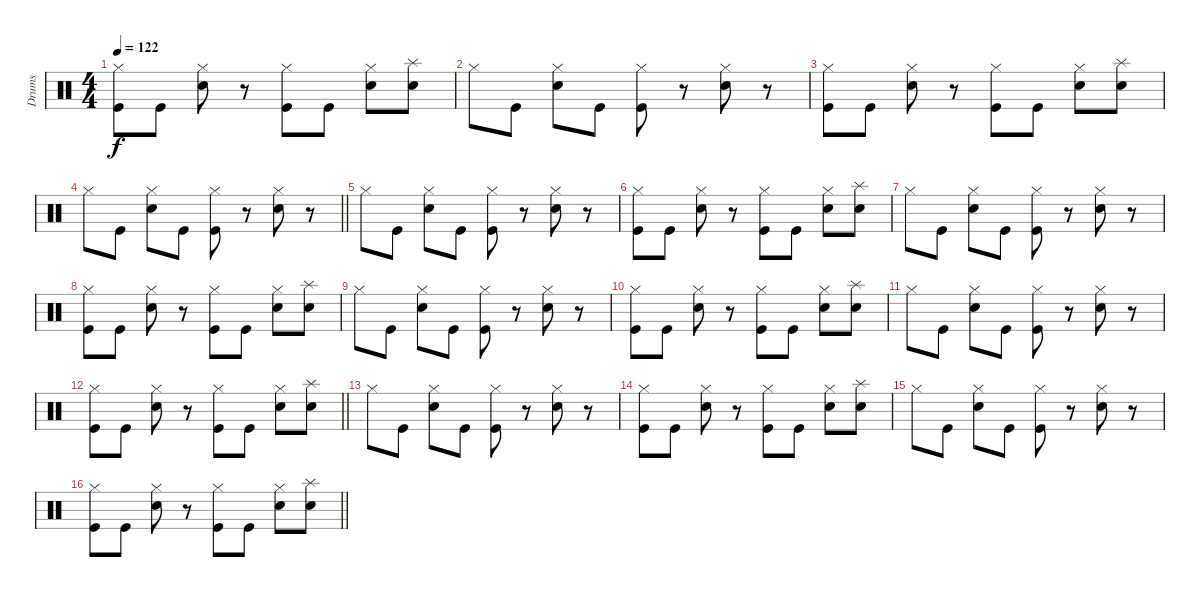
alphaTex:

\track ("Drums" "Drums") {instrument percussion}
\staff {score}
\articulation defaults
\ts (4 4)
\tempo 122
\clef neutral
\ks c
("Hi-Hat (closed)" "Kick (hit)").8{dy f} "Kick (hit)".8 ("Hi-Hat (closed)" "Snare (hit) 2").8 r.8 ("Hi-Hat (closed)" "Kick (hit)").8 "Kick (hit)".8 ("Hi-Hat (closed)" "Hand Clap (hit)").8 ("Splash (hit)" "Electric Snare (hit)").8 |
"Hi-Hat (closed)".8 "Kick (hit)".8 ("Hi-Hat (closed)" "Snare (hit) 2").8 "Kick (hit)".8 ("Hi-Hat (closed)" "Kick (hit)").8 r.8 ("Hi-Hat (closed)" "Snare (hit) 2").8 r.8 |
("Hi-Hat (closed)" "Kick (hit)").8 "Kick (hit)".8 ("Hi-Hat (closed)" "Snare (hit) 2").8 r.8 ("Hi-Hat (closed)" "Kick (hit)").8 "Kick (hit)".8 ("Hi-Hat (closed)" "Hand Clap (hit)").8 ("Splash (hit)" "Electric Snare (hit)").8 |
\barLineRight lightlight "Hi-Hat (closed)".8 "Kick (hit)".8
("Hi-Hat (closed)" "Snare (hit) 2").8 "Kick (hit)".8 ("Hi-Hat (closed)" "Kick (hit)").8 r.8 ("Hi-Hat (closed)" "Snare (hit) 2").8 r.8 |
"Hi-Hat (closed)".8 "Kick (hit)".8 ("Hi-Hat (closed)" "Snare (hit) 2").8 "Kick (hit)".8 ("Hi-Hat (closed)" "Kick (hit)").8 r.8 ("Hi-Hat (closed)" "Snare (hit) 2").8 r.8 |
("Hi-Hat (closed)" "Kick (hit)").8 "Kick (hit)".8 ("Hi-Hat (closed)" "Snare (hit) 2").8 r.8 ("Hi-Hat (closed)" "Kick (hit)").8 "Kick (hit)".8 ("Hi-Hat (closed)" "Hand Clap (hit)").8 ("Splash (hit)" "Electric Snare (hit)").8 |
"Hi-Hat (closed)".8 "Kick (hit)".8 ("Hi-Hat (closed)" "Snare (hit) 2").8 "Kick (hit)".8 ("Hi-Hat (closed)" "Kick (hit)").8 r.8 ("Hi-Hat (closed)" "Snare (hit) 2").8 r.8 |
("Hi-Hat (closed)" "Kick (hit)").8 "Kick (hit)".8 ("Hi-Hat (closed)" "Snare (hit) 2").8 r.8 ("Hi-Hat (closed)" "Kick (hit)").8 "Kick (hit)".8 ("Hi-Hat (closed)" "Hand Clap (hit)").8 ("Splash (hit)" "Electric Snare (hit)").8 |
"Hi-Hat (closed)".8 "Kick (hit)".8 ("Hi-Hat (closed)" "Snare (hit) 2").8 "Kick (hit)".8 ("Hi-Hat (closed)" "Kick (hit)").8 r.8 ("Hi-Hat (closed)" "Snare (hit) 2").8 r.8 |
("Hi-Hat (closed)" "Kick (hit)").8 "Kick (hit)".8 ("Hi-Hat (closed)" "Snare (hit) 2").8 r.8 ("Hi-Hat (closed)" "Kick (hit)").8 "Kick (hit)".8 ("Hi-Hat (closed)" "Hand Clap (hit)").8 ("Splash (hit)" "Electric Snare (hit)").8 |
"Hi-Hat (closed)".8 "Kick (hit)".8 ("Hi-Hat (closed)" "Snare (hit) 2").8 "Kick (hit)".8 ("Hi-Hat (closed)" "Kick (hit)").8 r.8 ("Hi-Hat (closed)" "Snare (hit) 2").8 r.8 |
\barLineRight lightlight
("Hi-Hat (closed)" "Kick (hit)").8 "Kick (hit)".8 ("Hi-Hat (closed)" "Snare (hit) 2").8 r.8 ("Hi-Hat (closed)" "Kick (hit)").8 "Kick (hit)".8 ("Hi-Hat (closed)" "Hand Clap (hit)").8 ("Splash (hit)" "Electric Snare (hit)").8 |
"Hi-Hat (closed)".8 "Kick (hit)".8 ("Hi-Hat (closed)" "Snare (hit) 2").8 "Kick (hit)".8 ("Hi-Hat (closed)" "Kick (hit)").8 r.8 ("Hi-Hat (closed)" "Snare (hit) 2").8 r.8 |
("Hi-Hat (closed)" "Kick (hit)").8 "Kick (hit)".8 ("Hi-Hat (closed)" "Snare (hit) 2").8 r.8 ("Hi-Hat (closed)" "Kick (hit)").8 "Kick (hit)".8 ("Hi-Hat (closed)" "Hand Clap (hit)").8 ("Splash (hit)" "Electric Snare (hit)").8 |
"Hi-Hat (closed)".8 "Kick (hit)".8 ("Hi-Hat (closed)" "Snare (hit) 2").8 "Kick (hit)".8 ("Hi-Hat (closed)" "Kick (hit)").8 r.8 ("Hi-Hat (closed)" "Snare (hit) 2").8 r.8 |
\barLineRight lightlight
("Hi-Hat (closed)" "Kick (hit)").8 "Kick (hit)".8 ("Hi-Hat (closed)" "Snare (hit) 2").8 r.8 ("Hi-Hat (closed)" "Kick (hit)").8 "Kick (hit)".8 ("Hi-Hat (closed)" "Hand Clap (hit)").8 ("Splash (hit)" "Electric Snare (hit)").8
